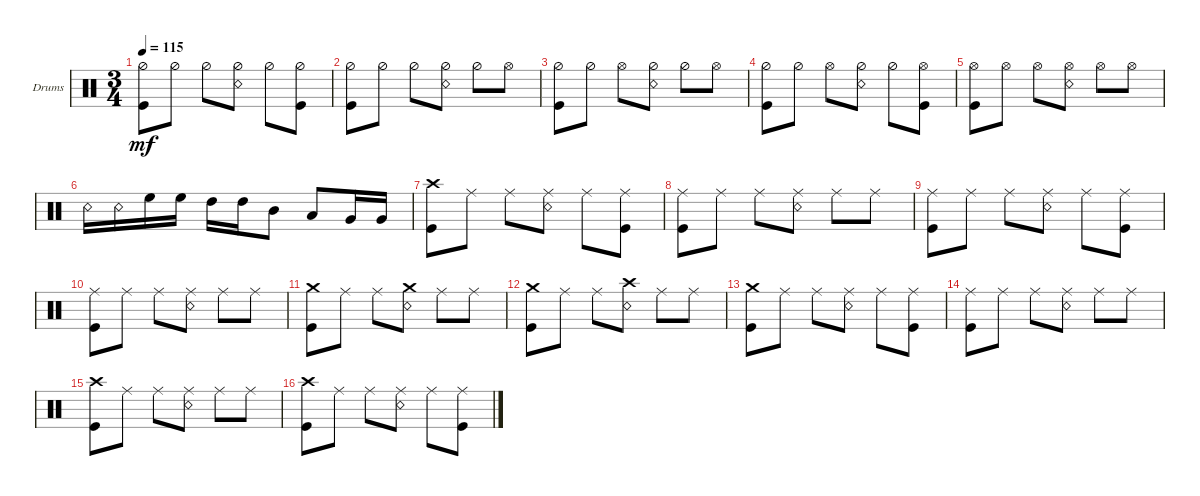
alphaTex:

\defaultSystemsLayout 4
\bracketExtendMode groupsimilarinstruments
\firstSystemTrackNameOrientation horizontal
\otherSystemsTrackNameOrientation horizontal
\track ("Drumkit" "Drums") {multiBarRest instrument percussion}
\staff {score}
\articulation defaults
\ts (3 4)
\tempo 115
\clef neutral
\ks aminor
("Kick (hit)" "Hi-Hat (half)").8{dy mf} "Hi-Hat (half)".8 "Hi-Hat (half)".8 ("Hi-Hat (half)" "Snare (rim shot)").8 "Hi-Hat (half)".8 ("Hi-Hat (half)" "Kick (hit)").8 |
("Kick (hit)" "Hi-Hat (half)").8 "Hi-Hat (half)".8 "Hi-Hat (half)".8 ("Hi-Hat (half)" "Snare (rim shot)").8 "Hi-Hat (half)".8 "Hi-Hat (open)".8 |
("Kick (hit)" "Hi-Hat (half)").8 "Hi-Hat (half)".8 "Hi-Hat (open)".8 ("Hi-Hat (half)" "Snare (rim shot)").8 "Hi-Hat (half)".8 "Hi-Hat (open)".8 |
("Kick (hit)" "Hi-Hat (half)").8 "Hi-Hat (half)".8 "Hi-Hat (open)".8 ("Hi-Hat (half)" "Snare (rim shot)").8 "Hi-Hat (half)".8 ("Hi-Hat (open)" "Kick (hit)").8 |
("Kick (hit)" "Hi-Hat (open)").8 "Hi-Hat (open)".8 "Hi-Hat (open)".8 ("Hi-Hat (open)" "Snare (rim shot)").8 "Hi-Hat (open)".8 "Hi-Hat (open)".8 |
"Snare (rim shot)".16 "Snare (rim shot)".16 "High Floor Tom (hit)".16 "High Floor Tom (hit)".16 "High Tom (hit)".16 "High Tom (hit)".16 "Mid Tom (hit)".8 "Low Tom (hit)".8 "Very Low Tom (hit)".16 "Very Low Tom (hit)".16 |
("Kick (hit)" "Crash high (hit)").8 "Ride (middle)".8 "Ride (middle)".8 ("Ride (middle)" "Snare (rim shot)").8 "Ride (middle)".8 ("Ride (middle)" "Kick (hit)").8 |
("Kick (hit)" "Ride (middle)").8 "Ride (middle)".8 "Ride (middle)".8 ("Ride (middle)" "Snare (rim shot)").8 "Ride (middle)".8 "Ride (middle)".8 |
("Kick (hit)" "Ride (middle)").8 "Ride (middle)".8 "Ride (middle)".8 ("Ride (middle)" "Snare (rim shot)").8 "Ride (middle)".8 ("Ride (middle)" "Kick (hit)").8 |
("Kick (hit)" "Ride (middle)").8 "Ride (middle)".8 "Ride (middle)".8 ("Ride (middle)" "Snare (rim shot)").8 "Ride (middle)".8 "Ride (middle)".8 |
("Kick (hit)" "Crash medium (hit)").8 "Ride (middle)".8 "Ride (middle)".8 ("Snare (rim shot)" "Crash medium (hit)").8 "Ride (middle)".8 "Ride (middle)".8 |
("Kick (hit)" "Crash medium (hit)").8 "Ride (middle)".8 "Ride (middle)".8 ("Snare (rim shot)" "Crash high (hit)").8 "Ride (middle)".8 "Ride (middle)".8 |
("Kick (hit)" "Crash medium (hit)").8 "Ride (middle)".8 "Ride (middle)".8 ("Ride (middle)" "Snare (rim shot)").8 "Ride (middle)".8 ("Ride (middle)" "Kick (hit)").8 |
("Kick (hit)" "Ride (middle)").8 "Ride (middle)".8 "Ride (middle)".8 ("Ride (middle)" "Snare (rim shot)").8 "Ride (middle)".8 "Ride (middle)".8 |
("Kick (hit)" "Crash high (hit)").8 "Ride (middle)".8 "Ride (middle)".8 ("Ride (middle)" "Snare (rim shot)").8 "Ride (middle)".8 "Ride (middle)".8 |
("Kick (hit)" "Crash high (hit)").8 "Ride (middle)".8 "Ride (middle)".8 ("Ride (middle)" "Snare (rim shot)").8 "Ride (middle)".8 ("Ride (middle)" "Kick (hit)").8
